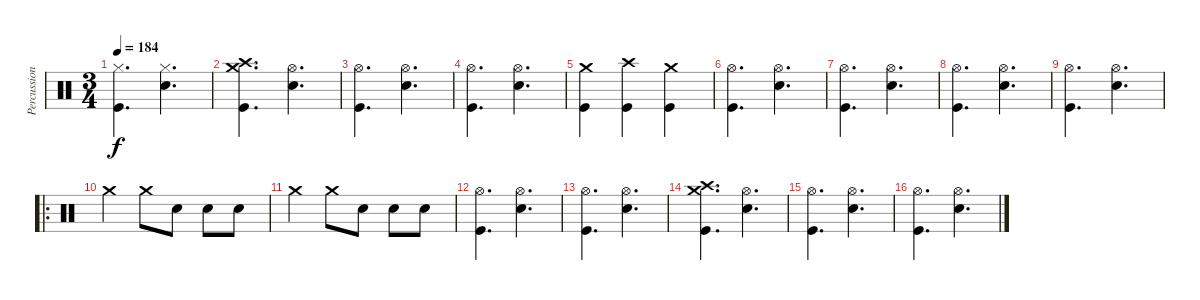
\track ("Percussion" "Percussion") {instrument percussion}
\staff {score}
\articulation defaults
\ts (3 4)
\tempo 184
\clef neutral
\ks c
("Hi-Hat (closed)" "Kick (hit)").4{d dy f} ("Snare (hit) 2" "Hi-Hat (closed)").4{d} |
("Crash medium (hit)" "Crash high (hit)" "Kick (hit)").4{d} ("Hi-Hat (open)" "Snare (hit) 2").4{d} |
("Hi-Hat (open)" "Kick (hit)").4{d} ("Hi-Hat (open)" "Snare (hit) 2").4{d} |
("Hi-Hat (open)" "Kick (hit)").4{d} ("Hi-Hat (open)" "Snare (hit) 2").4{d} |
("Crash medium (hit)" "Kick (hit)").4 ("Crash high (hit)" "Kick (hit)").4 ("Crash medium (hit)" "Kick (hit)").4 |
("Hi-Hat (open)" "Kick (hit)").4{d} ("Hi-Hat (open)" "Snare (hit) 2").4{d} |
("Hi-Hat (open)" "Kick (hit)").4{d} ("Hi-Hat (open)" "Snare (hit) 2").4{d} |
("Hi-Hat (open)" "Kick (hit)").4{d} ("Hi-Hat (open)" "Snare (hit) 2").4{d} |
("Hi-Hat (open)" "Kick (hit)").4{d} ("Hi-Hat (open)" "Snare (hit) 2").4{d} |
\ro "Crash medium (hit)".4 "Crash medium (hit)".8 "Snare (hit) 2".8 "Snare (hit) 2".8 "Snare (hit) 2".8
|
"Crash medium (hit)".4 "Crash medium (hit)".8 "Snare (hit) 2".8 "Snare (hit) 2".8 "Snare (hit) 2".8 |
("Hi-Hat (open)" "Kick (hit)").4{d} ("Hi-Hat (open)" "Snare (hit) 2").4{d} |
("Hi-Hat (open)" "Kick (hit)").4{d} ("Hi-Hat (open)" "Snare (hit) 2").4{d} |
("Crash medium (hit)" "Crash high (hit)" "Kick (hit)").4{d} ("Hi-Hat (open)" "Snare (hit) 2").4{d} |
("Hi-Hat (open)" "Kick (hit)").4{d} ("Hi-Hat (open)" "Snare (hit) 2").4{d} |
("Hi-Hat (open)" "Kick (hit)").4{d} ("Hi-Hat (open)" "Snare (hit) 2").4{d}
